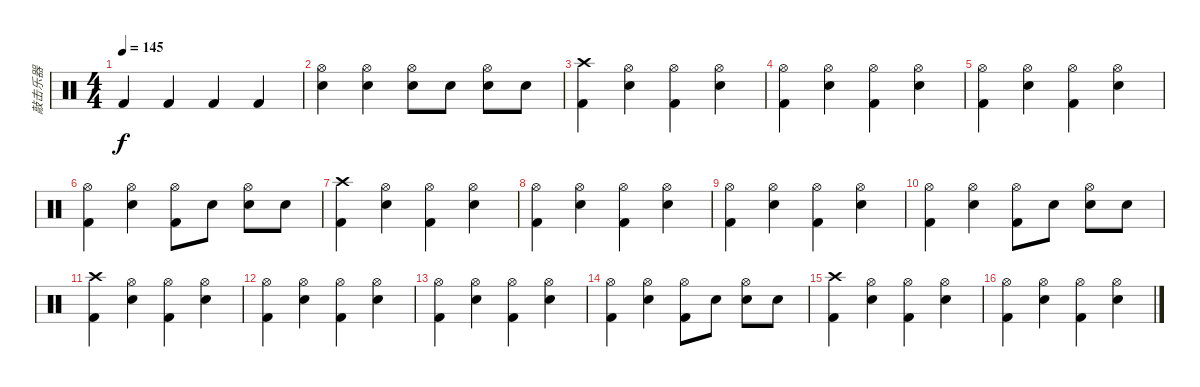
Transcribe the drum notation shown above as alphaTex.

\track ("敲击乐器" "敲击乐器") {instrument percussion}
\staff {score}
\articulation defaults
\ts (4 4)
\tempo 145
\clef neutral
\ks c "Kick (hit) 2".4{dy f} "Kick (hit) 2".4 "Kick (hit) 2".4 "Kick (hit) 2".4
|
("Hi-Hat (open)" "Snare (hit) 2").4 ("Hi-Hat (open)" "Snare (hit) 2").4 ("Hi-Hat (open)" "Snare (hit) 2").8 "Snare (hit) 2".8 ("Hi-Hat (open)" "Snare (hit) 2").8 "Snare (hit) 2".8 |
("Crash high (hit)" "Kick (hit) 2").4 ("Hi-Hat (open)" "Snare (hit) 2").4 ("Hi-Hat (open)" "Kick (hit) 2").4 ("Hi-Hat (open)" "Snare (hit) 2").4 |
("Hi-Hat (open)" "Kick (hit) 2").4 ("Hi-Hat (open)" "Snare (hit) 2").4 ("Hi-Hat (open)" "Kick (hit) 2").4 ("Hi-Hat (open)" "Snare (hit) 2").4 |
("Hi-Hat (open)" "Kick (hit) 2").4 ("Hi-Hat (open)" "Snare (hit) 2").4 ("Hi-Hat (open)" "Kick (hit) 2").4 ("Hi-Hat (open)" "Snare (hit) 2").4 |
("Hi-Hat (open)" "Kick (hit) 2").4 ("Hi-Hat (open)" "Snare (hit) 2").4 ("Hi-Hat (open)" "Kick (hit) 2").8 "Snare (hit) 2".8 ("Hi-Hat (open)" "Snare (hit) 2").8 "Snare (hit) 2".8 |
("Crash high (hit)" "Kick (hit) 2").4 ("Hi-Hat (open)" "Snare (hit) 2").4 ("Hi-Hat (open)" "Kick (hit) 2").4 ("Hi-Hat (open)" "Snare (hit) 2").4 |
("Hi-Hat (open)" "Kick (hit) 2").4 ("Hi-Hat (open)" "Snare (hit) 2").4 ("Hi-Hat (open)" "Kick (hit) 2").4 ("Hi-Hat (open)" "Snare (hit) 2").4 |
("Hi-Hat (open)" "Kick (hit) 2").4 ("Hi-Hat (open)" "Snare (hit) 2").4 ("Hi-Hat (open)" "Kick (hit) 2").4 ("Hi-Hat (open)" "Snare (hit) 2").4 |
("Hi-Hat (open)" "Kick (hit) 2").4 ("Hi-Hat (open)" "Snare (hit) 2").4 ("Hi-Hat (open)" "Kick (hit) 2").8 "Snare (hit) 2".8 ("Hi-Hat (open)" "Snare (hit) 2").8 "Snare (hit) 2".8 |
("Crash high (hit)" "Kick (hit) 2").4 ("Hi-Hat (open)" "Snare (hit) 2").4 ("Hi-Hat (open)" "Kick (hit) 2").4 ("Hi-Hat (open)" "Snare (hit) 2").4 |
("Hi-Hat (open)" "Kick (hit) 2").4 ("Hi-Hat (open)" "Snare (hit) 2").4 ("Hi-Hat (open)" "Kick (hit) 2").4 ("Hi-Hat (open)" "Snare (hit) 2").4 |
("Hi-Hat (open)" "Kick (hit) 2").4 ("Hi-Hat (open)" "Snare (hit) 2").4 ("Hi-Hat (open)" "Kick (hit) 2").4 ("Hi-Hat (open)" "Snare (hit) 2").4 |
("Hi-Hat (open)" "Kick (hit) 2").4 ("Hi-Hat (open)" "Snare (hit) 2").4 ("Hi-Hat (open)" "Kick (hit) 2").8 "Snare (hit) 2".8 ("Hi-Hat (open)" "Snare (hit) 2").8 "Snare (hit) 2".8 |
("Crash high (hit)" "Kick (hit) 2").4 ("Hi-Hat (open)" "Snare (hit) 2").4 ("Hi-Hat (open)" "Kick (hit) 2").4 ("Hi-Hat (open)" "Snare (hit) 2").4 |
("Hi-Hat (open)" "Kick (hit) 2").4 ("Hi-Hat (open)" "Snare (hit) 2").4 ("Hi-Hat (open)" "Kick (hit) 2").4 ("Hi-Hat (open)" "Snare (hit) 2").4
